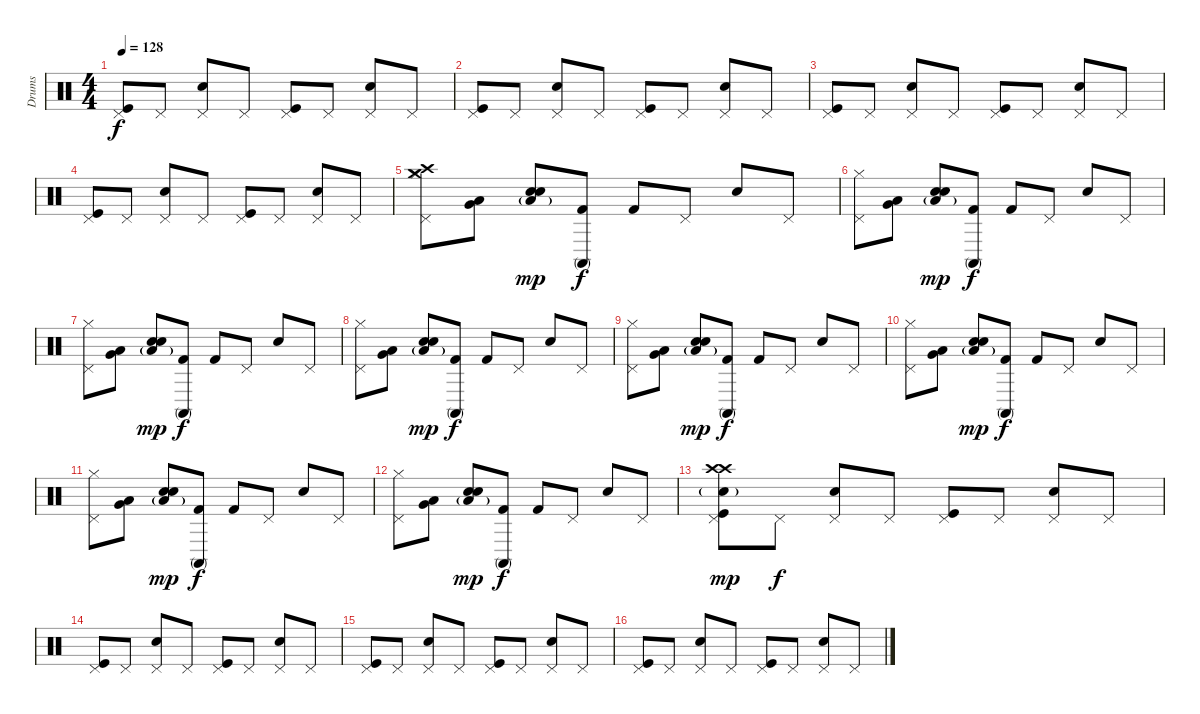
\track ("Drums" "Drums") {instrument percussion}
\staff {score}
\articulation defaults
\ts (4 4)
\tempo 128
\clef neutral
\ks c
("Pedal Hi-Hat (hit)" "Kick (hit)").8{dy f} "Pedal Hi-Hat (hit)".8 ("Pedal Hi-Hat (hit)" "Electric Snare (hit)").8 "Pedal Hi-Hat (hit)".8 ("Pedal Hi-Hat (hit)" "Kick (hit)").8 "Pedal Hi-Hat (hit)".8 ("Pedal Hi-Hat (hit)" "Electric Snare (hit)").8 "Pedal Hi-Hat (hit)".8 |
("Pedal Hi-Hat (hit)" "Kick (hit)").8 "Pedal Hi-Hat (hit)".8 ("Pedal Hi-Hat (hit)" "Electric Snare (hit)").8 "Pedal Hi-Hat (hit)".8 ("Pedal Hi-Hat (hit)" "Kick (hit)").8 "Pedal Hi-Hat (hit)".8 ("Pedal Hi-Hat (hit)" "Electric Snare (hit)").8 "Pedal Hi-Hat (hit)".8 |
("Pedal Hi-Hat (hit)" "Kick (hit)").8 "Pedal Hi-Hat (hit)".8 ("Pedal Hi-Hat (hit)" "Electric Snare (hit)").8 "Pedal Hi-Hat (hit)".8 ("Pedal Hi-Hat (hit)" "Kick (hit)").8 "Pedal Hi-Hat (hit)".8 ("Pedal Hi-Hat (hit)" "Electric Snare (hit)").8 "Pedal Hi-Hat (hit)".8 |
("Pedal Hi-Hat (hit)" "Kick (hit)").8 "Pedal Hi-Hat (hit)".8 ("Pedal Hi-Hat (hit)" "Electric Snare (hit)").8 "Pedal Hi-Hat (hit)".8 ("Pedal Hi-Hat (hit)" "Kick (hit)").8 "Pedal Hi-Hat (hit)".8 ("Pedal Hi-Hat (hit)" "Electric Snare (hit)").8 "Pedal Hi-Hat (hit)".8 |
("Hi-Hat (closed)" "Pedal Hi-Hat (hit)" "Crash medium (hit)" "Crash high (hit)").8 ("Very Low Tom (hit)" "Low Tom (hit)").8 ("Electric Snare (hit)" "Electric Snare (hit)" "Low Floor Tom (hit)"{g}).8{dy mp} ("Kick (hit) 2" "Conga high (mute)").8{dy f} "Kick (hit) 2".8 "Pedal Hi-Hat (hit)".8 "Electric Snare (hit)".8 "Pedal Hi-Hat (hit)".8 |
("Hi-Hat (closed)" "Pedal Hi-Hat (hit)").8 ("Very Low Tom (hit)" "Low Tom (hit)").8 ("Electric Snare (hit)" "Electric Snare (hit)" "Low Floor Tom (hit)"{g}).8{dy mp} ("Kick (hit) 2" "Conga high (mute)").8{dy f} "Kick (hit) 2".8 "Pedal Hi-Hat (hit)".8 "Electric Snare (hit)".8 "Pedal Hi-Hat (hit)".8 |
("Hi-Hat (closed)" "Pedal Hi-Hat (hit)").8 ("Very Low Tom (hit)" "Low Tom (hit)").8 ("Electric Snare (hit)" "Electric Snare (hit)" "Low Floor Tom (hit)"{g}).8{dy mp} ("Kick (hit) 2" "Conga high (mute)").8{dy f} "Kick (hit) 2".8 "Pedal Hi-Hat (hit)".8 "Electric Snare (hit)".8 "Pedal Hi-Hat (hit)".8 |
("Hi-Hat (closed)" "Pedal Hi-Hat (hit)").8 ("Very Low Tom (hit)" "Low Tom (hit)").8 ("Electric Snare (hit)" "Electric Snare (hit)" "Low Floor Tom (hit)"{g}).8{dy mp} ("Kick (hit) 2" "Conga high (mute)").8{dy f} "Kick (hit) 2".8 "Pedal Hi-Hat (hit)".8 "Electric Snare (hit)".8 "Pedal Hi-Hat (hit)".8 |
("Hi-Hat (closed)" "Pedal Hi-Hat (hit)").8 ("Very Low Tom (hit)" "Low Tom (hit)").8 ("Electric Snare (hit)" "Electric Snare (hit)" "Low Floor Tom (hit)"{g}).8{dy mp} ("Kick (hit) 2" "Conga high (mute)").8{dy f} "Kick (hit) 2".8 "Pedal Hi-Hat (hit)".8 "Electric Snare (hit)".8 "Pedal Hi-Hat (hit)".8 |
("Hi-Hat (closed)" "Pedal Hi-Hat (hit)").8 ("Very Low Tom (hit)" "Low Tom (hit)").8 ("Electric Snare (hit)" "Electric Snare (hit)" "Low Floor Tom (hit)"{g}).8{dy mp} ("Kick (hit) 2" "Conga high (mute)").8{dy f} "Kick (hit) 2".8 "Pedal Hi-Hat (hit)".8 "Electric Snare (hit)".8 "Pedal Hi-Hat (hit)".8 |
("Hi-Hat (closed)" "Pedal Hi-Hat (hit)").8 ("Very Low Tom (hit)" "Low Tom (hit)").8 ("Electric Snare (hit)" "Electric Snare (hit)" "Low Floor Tom (hit)"{g}).8{dy mp} ("Kick (hit) 2" "Conga high (mute)").8{dy f} "Kick (hit) 2".8 "Pedal Hi-Hat (hit)".8 "Electric Snare (hit)".8 "Pedal Hi-Hat (hit)".8 |
("Hi-Hat (closed)" "Pedal Hi-Hat (hit)").8 ("Very Low Tom (hit)" "Low Tom (hit)").8 ("Electric Snare (hit)" "Electric Snare (hit)" "Low Floor Tom (hit)"{g}).8{dy mp} ("Kick (hit) 2" "Conga high (mute)").8{dy f} "Kick (hit) 2".8 "Pedal Hi-Hat (hit)".8 "Electric Snare (hit)".8 "Pedal Hi-Hat (hit)".8 |
("Pedal Hi-Hat (hit)" "Kick (hit)" "Crash high (hit)" "Crash high (hit)" "Electric Snare (hit)"{g}).8{dy mp} "Pedal Hi-Hat (hit)".8{dy f} ("Pedal Hi-Hat (hit)" "Electric Snare (hit)").8 "Pedal Hi-Hat (hit)".8 ("Pedal Hi-Hat (hit)" "Kick (hit)").8 "Pedal Hi-Hat (hit)".8 ("Pedal Hi-Hat (hit)" "Electric Snare (hit)").8 "Pedal Hi-Hat (hit)".8 |
("Pedal Hi-Hat (hit)" "Kick (hit)").8 "Pedal Hi-Hat (hit)".8 ("Pedal Hi-Hat (hit)" "Electric Snare (hit)").8 "Pedal Hi-Hat (hit)".8 ("Pedal Hi-Hat (hit)" "Kick (hit)").8 "Pedal Hi-Hat (hit)".8 ("Pedal Hi-Hat (hit)" "Electric Snare (hit)").8 "Pedal Hi-Hat (hit)".8 |
("Pedal Hi-Hat (hit)" "Kick (hit)").8 "Pedal Hi-Hat (hit)".8 ("Pedal Hi-Hat (hit)" "Electric Snare (hit)").8 "Pedal Hi-Hat (hit)".8 ("Pedal Hi-Hat (hit)" "Kick (hit)").8 "Pedal Hi-Hat (hit)".8 ("Pedal Hi-Hat (hit)" "Electric Snare (hit)").8 "Pedal Hi-Hat (hit)".8 |
("Pedal Hi-Hat (hit)" "Kick (hit)").8 "Pedal Hi-Hat (hit)".8 ("Pedal Hi-Hat (hit)" "Electric Snare (hit)").8 "Pedal Hi-Hat (hit)".8 ("Pedal Hi-Hat (hit)" "Kick (hit)").8 "Pedal Hi-Hat (hit)".8 ("Pedal Hi-Hat (hit)" "Electric Snare (hit)").8 "Pedal Hi-Hat (hit)".8
